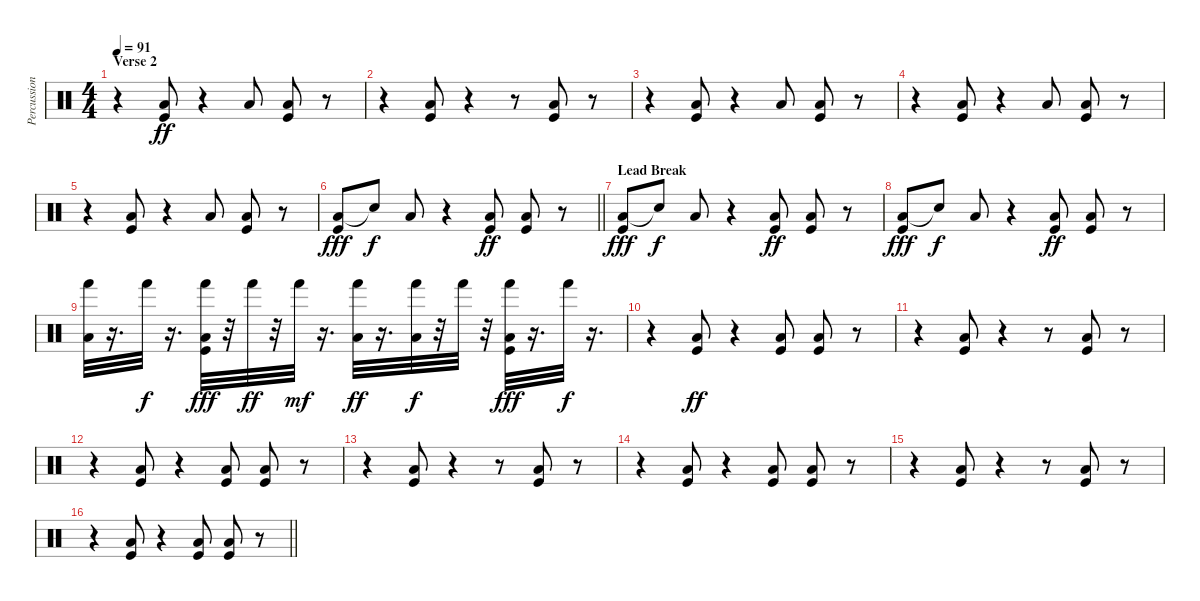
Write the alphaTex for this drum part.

\track ("Percussion" "Percussion") {instrument percussion}
\staff {score}
\articulation defaults
\ts (4 4)
\section ("" "Verse 2")
\tempo 91
\clef neutral
\ks c
r.4{dy ff} ("Low Floor Tom (hit)" "Kick (hit)").8 r.4 "Low Tom (hit)".8 ("Low Floor Tom (hit)" "Kick (hit)").8 r.8 |
r.4 ("Low Floor Tom (hit)" "Kick (hit)").8 r.4 r.8 ("Low Floor Tom (hit)" "Kick (hit)").8 r.8 |
r.4 ("Low Floor Tom (hit)" "Kick (hit)").8 r.4 "Low Tom (hit)".8 ("Low Floor Tom (hit)" "Kick (hit)").8 r.8 |
r.4 ("Low Floor Tom (hit)" "Kick (hit)").8 r.4 "Low Tom (hit)".8 ("Low Floor Tom (hit)" "Kick (hit)").8 r.8 |
r.4 ("Low Floor Tom (hit)" "Kick (hit)").8 r.4 "Low Tom (hit)".8 ("Low Floor Tom (hit)" "Kick (hit)").8 r.8 |
\barLineRight lightlight
("Low Floor Tom (hit)" "Kick (hit)").8{dy fff} "Snare (hit)"{t}.8{dy f} "Low Floor Tom (hit)".8 r.4 ("Low Tom (hit)" "Kick (hit)").8{dy ff} ("Low Floor Tom (hit)" "Kick (hit)").8 r.8 |
\section ("" "Lead Break")
("Low Floor Tom (hit)" "Kick (hit)").8{dy fff} "Snare (hit)"{t}.8{dy f} "Low Floor Tom (hit)".8 r.4 ("Low Tom (hit)" "Kick (hit)").8{dy ff} ("Low Floor Tom (hit)" "Kick (hit)").8 r.8 |
("Low Floor Tom (hit)" "Kick (hit)").8{dy fff} "Snare (hit)"{t}.8{dy f} "Low Floor Tom (hit)".8 r.4 ("Low Tom (hit)" "Kick (hit)").8{dy ff} ("Low Floor Tom (hit)" "Kick (hit)").8 r.8 |
("Hand (hit)" "Low Floor Tom (hit)").32 r.16{d} "Hand (hit)".32{dy f} r.16{d} ("Hand (hit)" "Low Floor Tom (hit)" "Kick (hit)").32{dy fff} r.32 "Hand (hit)".32{dy ff} r.32 "Hand (hit)".32{dy mf} r.16{d} ("Hand (hit)" "Low Floor Tom (hit)").32{dy ff} r.16{d} ("Hand (hit)" "Low Tom (hit)").32{dy f} r.32 "Hand (hit)".32 r.32 ("Hand (hit)" "Low Floor Tom (hit)" "Kick (hit)").32{dy fff} r.16{d} "Hand (hit)".32{dy f} r.16{d} |
r.4 ("Low Floor Tom (hit)" "Kick (hit)").8{dy ff} r.4 ("Low Tom (hit)" "Kick (hit)").8 ("Low Floor Tom (hit)" "Kick (hit)").8 r.8 |
r.4 ("Low Floor Tom (hit)" "Kick (hit)").8 r.4 r.8 ("Low Floor Tom (hit)" "Kick (hit)").8 r.8 |
r.4 ("Low Floor Tom (hit)" "Kick (hit)").8 r.4 ("Low Tom (hit)" "Kick (hit)").8 ("Low Floor Tom (hit)" "Kick (hit)").8 r.8 |
r.4 ("Low Floor Tom (hit)" "Kick (hit)").8 r.4 r.8 ("Low Floor Tom (hit)" "Kick (hit)").8 r.8 |
r.4 ("Low Floor Tom (hit)" "Kick (hit)").8 r.4 ("Low Tom (hit)" "Kick (hit)").8 ("Low Floor Tom (hit)" "Kick (hit)").8 r.8 |
r.4 ("Low Floor Tom (hit)" "Kick (hit)").8 r.4 r.8 ("Low Floor Tom (hit)" "Kick (hit)").8 r.8 |
\barLineRight lightlight
r.4 ("Low Floor Tom (hit)" "Kick (hit)").8 r.4 ("Low Tom (hit)" "Kick (hit)").8 ("Low Floor Tom (hit)" "Kick (hit)").8 r.8
